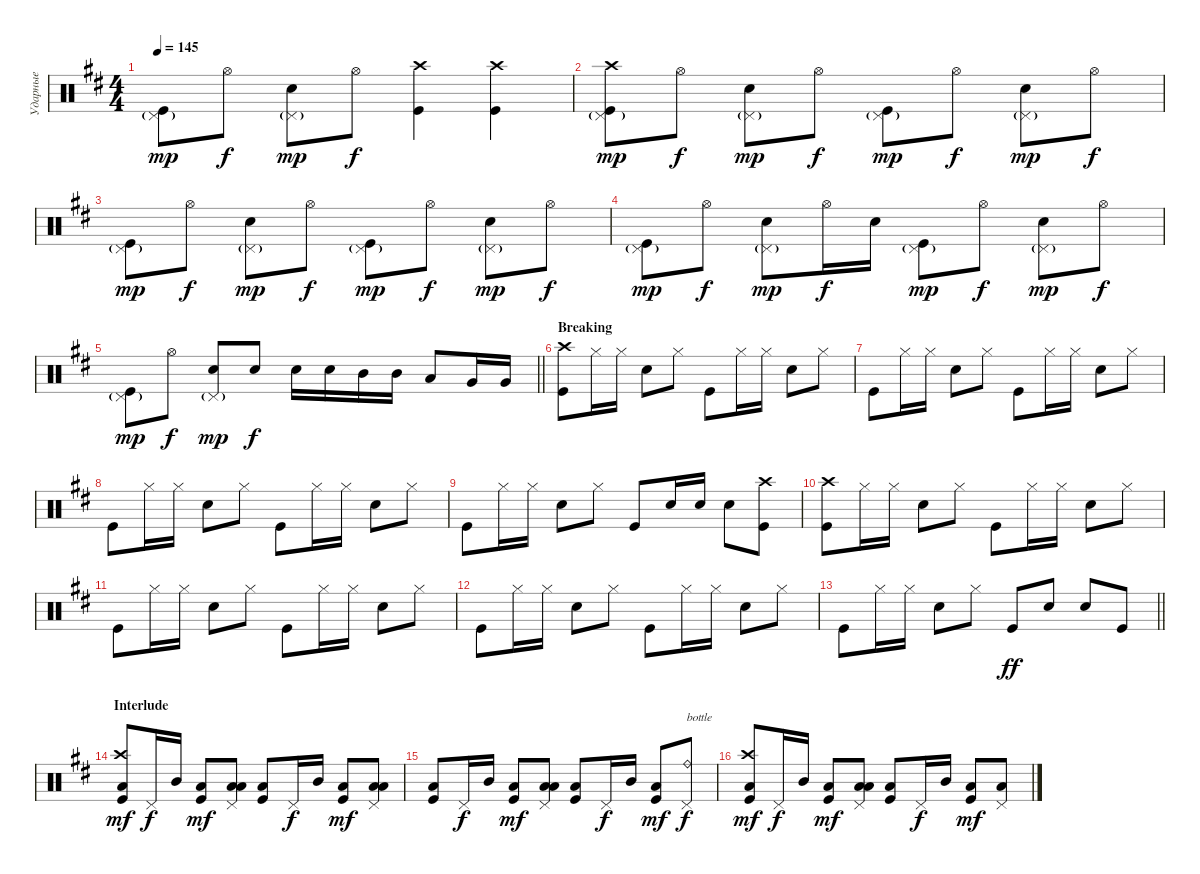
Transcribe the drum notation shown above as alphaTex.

\track ("Ударные" "Ударные") {instrument percussion}
\staff {score}
\articulation defaults
\ts (4 4)
\tempo 145
\clef neutral
\ks bminor
("Pedal Hi-Hat (hit)"{g} "Kick (hit)").8{dy mp} "Hi-Hat (open)".8{dy f} ("Snare (hit) 2" "Pedal Hi-Hat (hit)"{g}).8{dy mp} "Hi-Hat (open)".8{dy f} ("Kick (hit)" "Crash high (hit)").4 ("Kick (hit)" "Crash high (hit)").4 |
("Pedal Hi-Hat (hit)"{g} "Kick (hit)" "Crash high (hit)").8{dy mp} "Hi-Hat (open)".8{dy f} ("Snare (hit) 2" "Pedal Hi-Hat (hit)"{g}).8{dy mp} "Hi-Hat (open)".8{dy f} ("Pedal Hi-Hat (hit)"{g} "Kick (hit)").8{dy mp} "Hi-Hat (open)".8{dy f} ("Snare (hit) 2" "Pedal Hi-Hat (hit)"{g}).8{dy mp} "Hi-Hat (open)".8{dy f} |
("Pedal Hi-Hat (hit)"{g} "Kick (hit)").8{dy mp} "Hi-Hat (open)".8{dy f} ("Snare (hit) 2" "Pedal Hi-Hat (hit)"{g}).8{dy mp} "Hi-Hat (open)".8{dy f} ("Pedal Hi-Hat (hit)"{g} "Kick (hit)").8{dy mp} "Hi-Hat (open)".8{dy f} ("Snare (hit) 2" "Pedal Hi-Hat (hit)"{g}).8{dy mp} "Hi-Hat (open)".8{dy f} |
("Pedal Hi-Hat (hit)"{g} "Kick (hit)").8{dy mp} "Hi-Hat (open)".8{dy f} ("Snare (hit) 2" "Pedal Hi-Hat (hit)"{g}).8{dy mp} "Hi-Hat (open)".16{dy f} "Snare (hit) 2".16 ("Pedal Hi-Hat (hit)"{g} "Kick (hit)").8{dy mp} "Hi-Hat (open)".8{dy f} ("Snare (hit) 2" "Pedal Hi-Hat (hit)"{g}).8{dy mp} "Hi-Hat (open)".8{dy f} |
\barLineRight lightlight
("Pedal Hi-Hat (hit)"{g} "Kick (hit)").8{dy mp} "Hi-Hat (open)".8{dy f} ("Snare (hit) 2" "Pedal Hi-Hat (hit)"{g}).8{dy mp} "Snare (hit) 2".8{dy f} "Snare (hit) 2".16 "Snare (hit) 2".16 "Mid Tom (hit)".16 "Mid Tom (hit)".16 "Low Tom (hit)".8 "Very Low Tom (hit)".16 "Very Low Tom (hit)".16 |
\section ("" "Breaking")
("Kick (hit)" "Crash high (hit)").8 "Hi-Hat (closed)".16 "Hi-Hat (closed)".16 "Snare (hit) 2".8 "Hi-Hat (closed)".8 "Kick (hit)".8 "Hi-Hat (closed)".16 "Hi-Hat (closed)".16 "Snare (hit) 2".8 "Hi-Hat (closed)".8 |
"Kick (hit)".8 "Hi-Hat (closed)".16 "Hi-Hat (closed)".16 "Snare (hit) 2".8 "Hi-Hat (closed)".8 "Kick (hit)".8 "Hi-Hat (closed)".16 "Hi-Hat (closed)".16 "Snare (hit) 2".8 "Hi-Hat (closed)".8 |
"Kick (hit)".8 "Hi-Hat (closed)".16 "Hi-Hat (closed)".16 "Snare (hit) 2".8 "Hi-Hat (closed)".8 "Kick (hit)".8 "Hi-Hat (closed)".16 "Hi-Hat (closed)".16 "Snare (hit) 2".8 "Hi-Hat (closed)".8 |
"Kick (hit)".8 "Hi-Hat (closed)".16 "Hi-Hat (closed)".16 "Snare (hit) 2".8 "Hi-Hat (closed)".8 "Kick (hit)".8 "Snare (hit) 2".16 "Snare (hit) 2".16 "Snare (hit) 2".8 ("Kick (hit)" "Crash high (hit)").8 |
("Kick (hit)" "Crash high (hit)").8 "Hi-Hat (closed)".16 "Hi-Hat (closed)".16 "Snare (hit) 2".8 "Hi-Hat (closed)".8 "Kick (hit)".8 "Hi-Hat (closed)".16 "Hi-Hat (closed)".16 "Snare (hit) 2".8 "Hi-Hat (closed)".8 |
"Kick (hit)".8 "Hi-Hat (closed)".16 "Hi-Hat (closed)".16 "Snare (hit) 2".8 "Hi-Hat (closed)".8 "Kick (hit)".8 "Hi-Hat (closed)".16 "Hi-Hat (closed)".16 "Snare (hit) 2".8 "Hi-Hat (closed)".8 |
"Kick (hit)".8 "Hi-Hat (closed)".16 "Hi-Hat (closed)".16 "Snare (hit) 2".8 "Hi-Hat (closed)".8 "Kick (hit)".8 "Hi-Hat (closed)".16 "Hi-Hat (closed)".16 "Snare (hit) 2".8 "Hi-Hat (closed)".8 |
\barLineRight lightlight "Kick (hit)".8 "Hi-Hat (closed)".16 "Hi-Hat (closed)".16 "Snare (hit) 2".8 "Hi-Hat (closed)".8 "Kick (hit)".8{dy ff} "Snare (hit) 2".8 "Snare (hit) 2".8 "Kick (hit)".8
|
\section ("" "Interlude")
("Kick (hit)" "Crash high (hit)" "Low Floor Tom (hit)").8{dy mf} "Pedal Hi-Hat (hit)".16{dy f} "Mid Tom (hit)".16 ("Kick (hit)" "Low Floor Tom (hit)").8{bd 120 dy mf} ("Pedal Hi-Hat (hit)" "Low Tom (hit)" "Low Floor Tom (hit)").8{bd 120} ("Kick (hit)" "Low Floor Tom (hit)").8{bd 120} "Pedal Hi-Hat (hit)".16{dy f} "Mid Tom (hit)".16 ("Kick (hit)" "Low Floor Tom (hit)").8{bd 120 dy mf} ("Pedal Hi-Hat (hit)" "Low Tom (hit)" "Low Floor Tom (hit)").8{bd 120} |
("Kick (hit)" "Low Floor Tom (hit)").8{bd 120} "Pedal Hi-Hat (hit)".16{dy f} "Mid Tom (hit)".16 ("Kick (hit)" "Low Floor Tom (hit)").8{bd 120 dy mf} ("Pedal Hi-Hat (hit)" "Low Tom (hit)" "Low Floor Tom (hit)").8{bd 120} ("Kick (hit)" "Low Floor Tom (hit)").8{bd 120} "Pedal Hi-Hat (hit)".16{dy f} "Mid Tom (hit)".16 ("Kick (hit)" "Low Floor Tom (hit)").8{bd 120 dy mf} ("Pedal Hi-Hat (hit)" "Ride (bell)").8{txt "bottle" dy f} |
("Kick (hit)" "Low Floor Tom (hit)" "Crash high (hit)").8{bd 120 dy mf} "Pedal Hi-Hat (hit)".16{dy f} "Mid Tom (hit)".16 ("Kick (hit)" "Low Floor Tom (hit)").8{bd 120 dy mf} ("Pedal Hi-Hat (hit)" "Low Tom (hit)" "Low Floor Tom (hit)").8{bd 120} ("Kick (hit)" "Low Floor Tom (hit)").8{bd 120} "Pedal Hi-Hat (hit)".16{dy f} "Mid Tom (hit)".16 ("Kick (hit)" "Low Floor Tom (hit)").8{bd 120 dy mf} ("Pedal Hi-Hat (hit)" "Low Floor Tom (hit)").8
